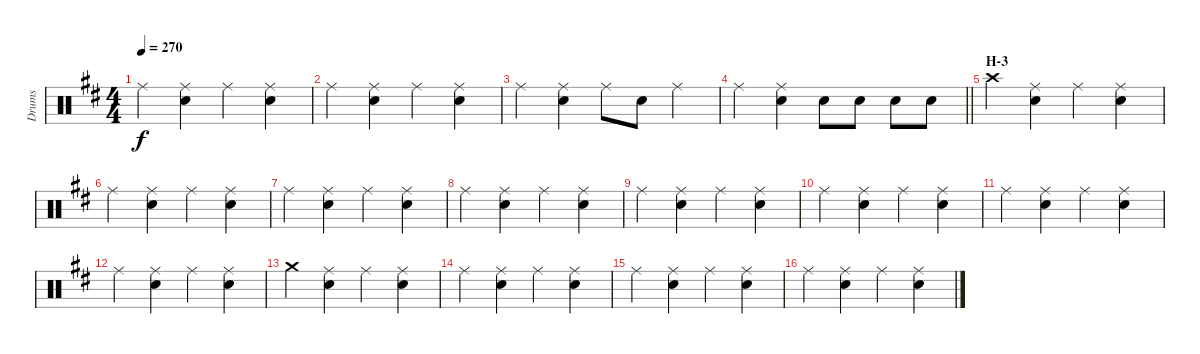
\track ("Drums" "Drums") {instrument percussion}
\staff {score}
\articulation defaults
\ts (4 4)
\tempo 270
\clef neutral
\ks d "Ride (middle)".4{dy f}
("Ride (middle)" "Snare (hit) 2").4 "Ride (middle)".4 ("Ride (middle)" "Snare (hit) 2").4 |
"Ride (middle)".4 ("Ride (middle)" "Snare (hit) 2").4 "Ride (middle)".4 ("Ride (middle)" "Snare (hit) 2").4 |
"Ride (middle)".4 ("Ride (middle)" "Snare (hit) 2").4 "Ride (middle)".8 "Snare (hit) 2".8 "Ride (middle)".4 |
\barLineRight lightlight "Ride (middle)".4
("Ride (middle)" "Snare (hit) 2").4 "Snare (hit) 2".8 "Snare (hit) 2".8 "Snare (hit) 2".8 "Snare (hit) 2".8 |
\section ("" "H-3")
"Crash high (hit)".4 ("Ride (middle)" "Snare (hit) 2").4 "Ride (middle)".4 ("Ride (middle)" "Snare (hit) 2").4 |
"Ride (middle)".4 ("Ride (middle)" "Snare (hit) 2").4 "Ride (middle)".4 ("Ride (middle)" "Snare (hit) 2").4 |
"Ride (middle)".4 ("Ride (middle)" "Snare (hit) 2").4 "Ride (middle)".4 ("Ride (middle)" "Snare (hit) 2").4 |
"Ride (middle)".4 ("Ride (middle)" "Snare (hit) 2").4 "Ride (middle)".4 ("Ride (middle)" "Snare (hit) 2").4 |
"Ride (middle)".4 ("Ride (middle)" "Snare (hit) 2").4 "Ride (middle)".4 ("Ride (middle)" "Snare (hit) 2").4 |
"Ride (middle)".4 ("Ride (middle)" "Snare (hit) 2").4 "Ride (middle)".4 ("Ride (middle)" "Snare (hit) 2").4 |
"Ride (middle)".4 ("Ride (middle)" "Snare (hit) 2").4 "Ride (middle)".4 ("Ride (middle)" "Snare (hit) 2").4 |
"Ride (middle)".4 ("Ride (middle)" "Snare (hit) 2").4 "Ride (middle)".4 ("Ride (middle)" "Snare (hit) 2").4 |
"Crash medium (hit)".4 ("Ride (middle)" "Snare (hit) 2").4 "Ride (middle)".4 ("Ride (middle)" "Snare (hit) 2").4 |
"Ride (middle)".4 ("Ride (middle)" "Snare (hit) 2").4 "Ride (middle)".4 ("Ride (middle)" "Snare (hit) 2").4 |
"Ride (middle)".4 ("Ride (middle)" "Snare (hit) 2").4 "Ride (middle)".4 ("Ride (middle)" "Snare (hit) 2").4 |
"Ride (middle)".4 ("Ride (middle)" "Snare (hit) 2").4 "Ride (middle)".4 ("Ride (middle)" "Snare (hit) 2").4
